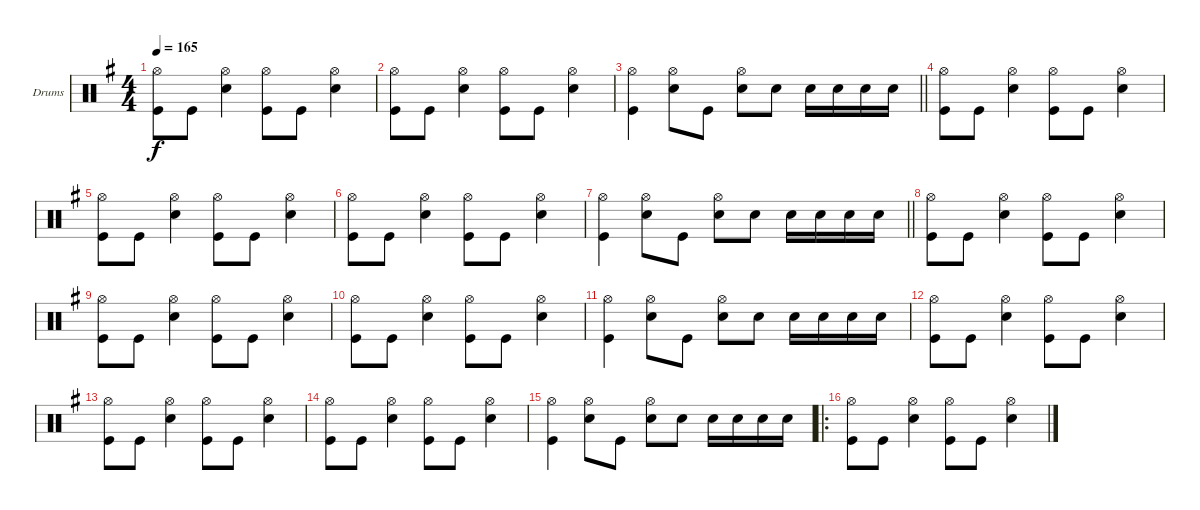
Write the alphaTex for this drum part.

\bracketExtendMode groupsimilarinstruments
\firstSystemTrackNameOrientation horizontal
\otherSystemsTrackNameOrientation horizontal
\track ("Drumkit" "Drums") {instrument percussion}
\staff {score}
\articulation defaults
\ts (4 4)
\tempo 165
\clef neutral
\ks eminor
("Hi-Hat (open)" "Kick (hit)").8{dy f} "Kick (hit)".8 ("Hi-Hat (open)" "Snare (hit) 2").4 ("Hi-Hat (open)" "Kick (hit)").8 "Kick (hit)".8 ("Hi-Hat (open)" "Snare (hit) 2").4 |
("Hi-Hat (open)" "Kick (hit)").8 "Kick (hit)".8 ("Hi-Hat (open)" "Snare (hit) 2").4 ("Hi-Hat (open)" "Kick (hit)").8 "Kick (hit)".8 ("Hi-Hat (open)" "Snare (hit) 2").4 |
\barLineRight lightlight
("Hi-Hat (open)" "Kick (hit)").4 ("Hi-Hat (open)" "Snare (hit) 2").8 "Kick (hit)".8 ("Hi-Hat (open)" "Snare (hit) 2").8 "Snare (hit) 2".8 "Snare (hit) 2".16 "Snare (hit) 2".16 "Snare (hit) 2".16 "Snare (hit) 2".16 |
("Hi-Hat (open)" "Kick (hit)").8 "Kick (hit)".8 ("Hi-Hat (open)" "Snare (hit) 2").4 ("Hi-Hat (open)" "Kick (hit)").8 "Kick (hit)".8 ("Hi-Hat (open)" "Snare (hit) 2").4 |
("Hi-Hat (open)" "Kick (hit)").8 "Kick (hit)".8 ("Hi-Hat (open)" "Snare (hit) 2").4 ("Hi-Hat (open)" "Kick (hit)").8 "Kick (hit)".8 ("Hi-Hat (open)" "Snare (hit) 2").4 |
("Hi-Hat (open)" "Kick (hit)").8 "Kick (hit)".8 ("Hi-Hat (open)" "Snare (hit) 2").4 ("Hi-Hat (open)" "Kick (hit)").8 "Kick (hit)".8 ("Hi-Hat (open)" "Snare (hit) 2").4 |
\barLineRight lightlight
("Hi-Hat (open)" "Kick (hit)").4 ("Hi-Hat (open)" "Snare (hit) 2").8 "Kick (hit)".8 ("Hi-Hat (open)" "Snare (hit) 2").8 "Snare (hit) 2".8 "Snare (hit) 2".16 "Snare (hit) 2".16 "Snare (hit) 2".16 "Snare (hit) 2".16 |
("Hi-Hat (open)" "Kick (hit)").8 "Kick (hit)".8 ("Hi-Hat (open)" "Snare (hit) 2").4 ("Hi-Hat (open)" "Kick (hit)").8 "Kick (hit)".8 ("Hi-Hat (open)" "Snare (hit) 2").4 |
("Hi-Hat (open)" "Kick (hit)").8 "Kick (hit)".8 ("Hi-Hat (open)" "Snare (hit) 2").4 ("Hi-Hat (open)" "Kick (hit)").8 "Kick (hit)".8 ("Hi-Hat (open)" "Snare (hit) 2").4 |
("Hi-Hat (open)" "Kick (hit)").8 "Kick (hit)".8 ("Hi-Hat (open)" "Snare (hit) 2").4 ("Hi-Hat (open)" "Kick (hit)").8 "Kick (hit)".8 ("Hi-Hat (open)" "Snare (hit) 2").4 |
("Hi-Hat (open)" "Kick (hit)").4 ("Hi-Hat (open)" "Snare (hit) 2").8 "Kick (hit)".8 ("Hi-Hat (open)" "Snare (hit) 2").8 "Snare (hit) 2".8 "Snare (hit) 2".16 "Snare (hit) 2".16 "Snare (hit) 2".16 "Snare (hit) 2".16 |
("Hi-Hat (open)" "Kick (hit)").8 "Kick (hit)".8 ("Hi-Hat (open)" "Snare (hit) 2").4 ("Hi-Hat (open)" "Kick (hit)").8 "Kick (hit)".8 ("Hi-Hat (open)" "Snare (hit) 2").4 |
("Hi-Hat (open)" "Kick (hit)").8 "Kick (hit)".8 ("Hi-Hat (open)" "Snare (hit) 2").4 ("Hi-Hat (open)" "Kick (hit)").8 "Kick (hit)".8 ("Hi-Hat (open)" "Snare (hit) 2").4 |
("Hi-Hat (open)" "Kick (hit)").8 "Kick (hit)".8 ("Hi-Hat (open)" "Snare (hit) 2").4 ("Hi-Hat (open)" "Kick (hit)").8 "Kick (hit)".8 ("Hi-Hat (open)" "Snare (hit) 2").4 |
("Hi-Hat (open)" "Kick (hit)").4 ("Hi-Hat (open)" "Snare (hit) 2").8 "Kick (hit)".8 ("Hi-Hat (open)" "Snare (hit) 2").8 "Snare (hit) 2".8 "Snare (hit) 2".16 "Snare (hit) 2".16 "Snare (hit) 2".16 "Snare (hit) 2".16 |
\ro
("Hi-Hat (open)" "Kick (hit)").8 "Kick (hit)".8 ("Hi-Hat (open)" "Snare (hit) 2").4 ("Hi-Hat (open)" "Kick (hit)").8 "Kick (hit)".8 ("Hi-Hat (open)" "Snare (hit) 2").4
